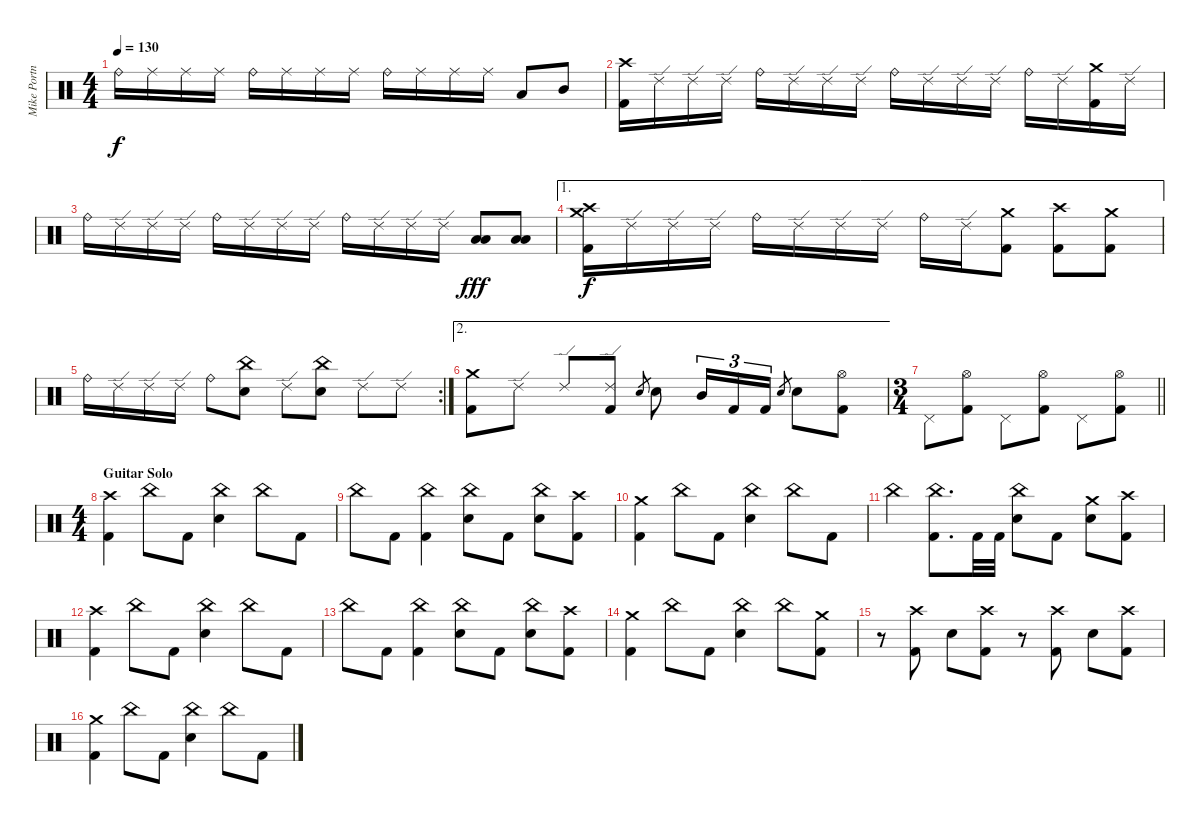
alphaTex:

\track ("Mike Portnoy" "Mike Portn") {instrument percussion}
\staff {score}
\articulation defaults
\ts (4 4)
\tempo 130
\clef neutral
\ks c "Ride (bell)".16{dy f} "Ride (middle)".16 "Ride (middle)".16 "Ride (middle)".16 "Ride (bell)".16 "Ride (middle)".16 "Ride (middle)".16 "Ride (middle)".16 "Ride (bell)".16 "Ride (middle)".16 "Ride (middle)".16 "Ride (middle)".16 "Low Tom (hit)".8 "Mid Tom (hit)".8
|
("Crash high (hit)" "Kick (hit) 2").16 "Ride (edge) 2".16 "Ride (edge) 2".16 "Ride (edge) 2".16 "Ride (bell)".16 "Ride (edge) 2".16 "Ride (edge) 2".16 "Ride (edge) 2".16 "Ride (bell)".16 "Ride (edge) 2".16 "Ride (edge) 2".16 "Ride (edge) 2".16 "Ride (bell)".16 "Ride (edge) 2".16 ("Crash medium (hit)" "Kick (hit) 2").16 "Ride (edge) 2".16 |
"Ride (bell)".16 "Ride (edge) 2".16 "Ride (edge) 2".16 "Ride (edge) 2".16 "Ride (bell)".16 "Ride (edge) 2".16 "Ride (edge) 2".16 "Ride (edge) 2".16 "Ride (bell)".16 "Ride (edge) 2".16 "Ride (edge) 2".16 "Ride (edge) 2".16 ("Low Tom (hit)" "Low Floor Tom (hit)").8{dy fff} ("Low Tom (hit)" "Low Floor Tom (hit)").8 |
\ae 1
("Crash medium (hit)" "Crash high (hit)" "Kick (hit) 2").16{dy f} "Ride (edge) 2".16 "Ride (edge) 2".16 "Ride (edge) 2".16 "Ride (bell)".16 "Ride (edge) 2".16 "Ride (edge) 2".16 "Ride (edge) 2".16 "Ride (bell)".16 "Ride (edge) 2".16 ("Crash medium (hit)" "Kick (hit) 2").8 ("Crash high (hit)" "Kick (hit) 2").8 ("Crash medium (hit)" "Kick (hit) 2").8 |
\rc 2 "Ride (bell)".16 "Ride (edge) 2".16 "Ride (edge) 2".16 "Ride (edge) 2".16 "Ride (bell)".8
("China (hit)" "Electric Snare (hit)").8 "Ride (edge) 2".8 ("China (hit)" "Electric Snare (hit)").8 "Ride (edge) 2".8 "Ride (edge) 2".8 |
\ae 2
("Crash medium (hit)" "Kick (hit) 2").8 "Ride (edge) 2".8 "Ride (edge) 2".8 ("Ride (edge) 2" "Kick (hit) 2").8 "Electric Snare (hit)".8{gr} "Electric Snare (hit)".8 "Mid Tom (hit)".16{tu (3 2)} "Kick (hit) 2".16{tu (3 2)} "Kick (hit) 2".16{tu (3 2)} "Electric Snare (hit)".8{gr} "Electric Snare (hit)".8 ("Hi-Hat (open)" "Kick (hit) 2").8 |
\ts (3 4)
\barLineRight lightlight "Pedal Hi-Hat (hit)".8
("Hi-Hat (open)" "Kick (hit) 2").8 "Pedal Hi-Hat (hit)".8 ("Hi-Hat (open)" "Kick (hit) 2").8 "Pedal Hi-Hat (hit)".8 ("Hi-Hat (open)" "Kick (hit) 2").8 |
\ts (4 4)
\section ("" "Guitar Solo")
("Crash high (hit)" "Kick (hit) 2").4 "China (hit)".8 "Kick (hit) 2".8 ("China (hit)" "Electric Snare (hit)").4 "China (hit)".8 "Kick (hit) 2".8 |
"China (hit)".8 "Kick (hit) 2".8 ("China (hit)" "Kick (hit) 2").4 ("China (hit)" "Electric Snare (hit)").8 "Kick (hit) 2".8 ("China (hit)" "Electric Snare (hit)").8 ("Crash high (hit)" "Kick (hit) 2").8 |
("Crash medium (hit)" "Kick (hit) 2").4 "China (hit)".8 "Kick (hit) 2".8 ("China (hit)" "Electric Snare (hit)").4 "China (hit)".8 "Kick (hit) 2".8 |
"China (hit)".4 ("China (hit)" "Kick (hit) 2").8{d} "Kick (hit) 2".32 "Kick (hit) 2".32 ("China (hit)" "Electric Snare (hit)").8 "Kick (hit) 2".8 ("Crash medium (hit)" "Electric Snare (hit)").8 ("Crash high (hit)" "Kick (hit) 2").8 |
("Crash high (hit)" "Kick (hit) 2").4 "China (hit)".8 "Kick (hit) 2".8 ("China (hit)" "Electric Snare (hit)").4 "China (hit)".8 "Kick (hit) 2".8 |
"China (hit)".8 "Kick (hit) 2".8 ("China (hit)" "Kick (hit) 2").4 ("China (hit)" "Electric Snare (hit)").8 "Kick (hit) 2".8 ("China (hit)" "Electric Snare (hit)").8 ("Crash high (hit)" "Kick (hit) 2").8 |
("Crash medium (hit)" "Kick (hit) 2").4 "China (hit)".8 "Kick (hit) 2".8 ("China (hit)" "Electric Snare (hit)").4 "China (hit)".8 ("Crash medium (hit)" "Kick (hit) 2").8 |
r.8 ("Crash high (hit)" "Kick (hit) 2").8 "Electric Snare (hit)".8 ("Crash high (hit)" "Kick (hit) 2").8 r.8 ("Crash high (hit)" "Kick (hit) 2").8 "Electric Snare (hit)".8 ("Crash high (hit)" "Kick (hit) 2").8 |
("Crash medium (hit)" "Kick (hit) 2").4 "China (hit)".8 "Kick (hit) 2".8 ("China (hit)" "Electric Snare (hit)").4 "China (hit)".8 "Kick (hit) 2".8
